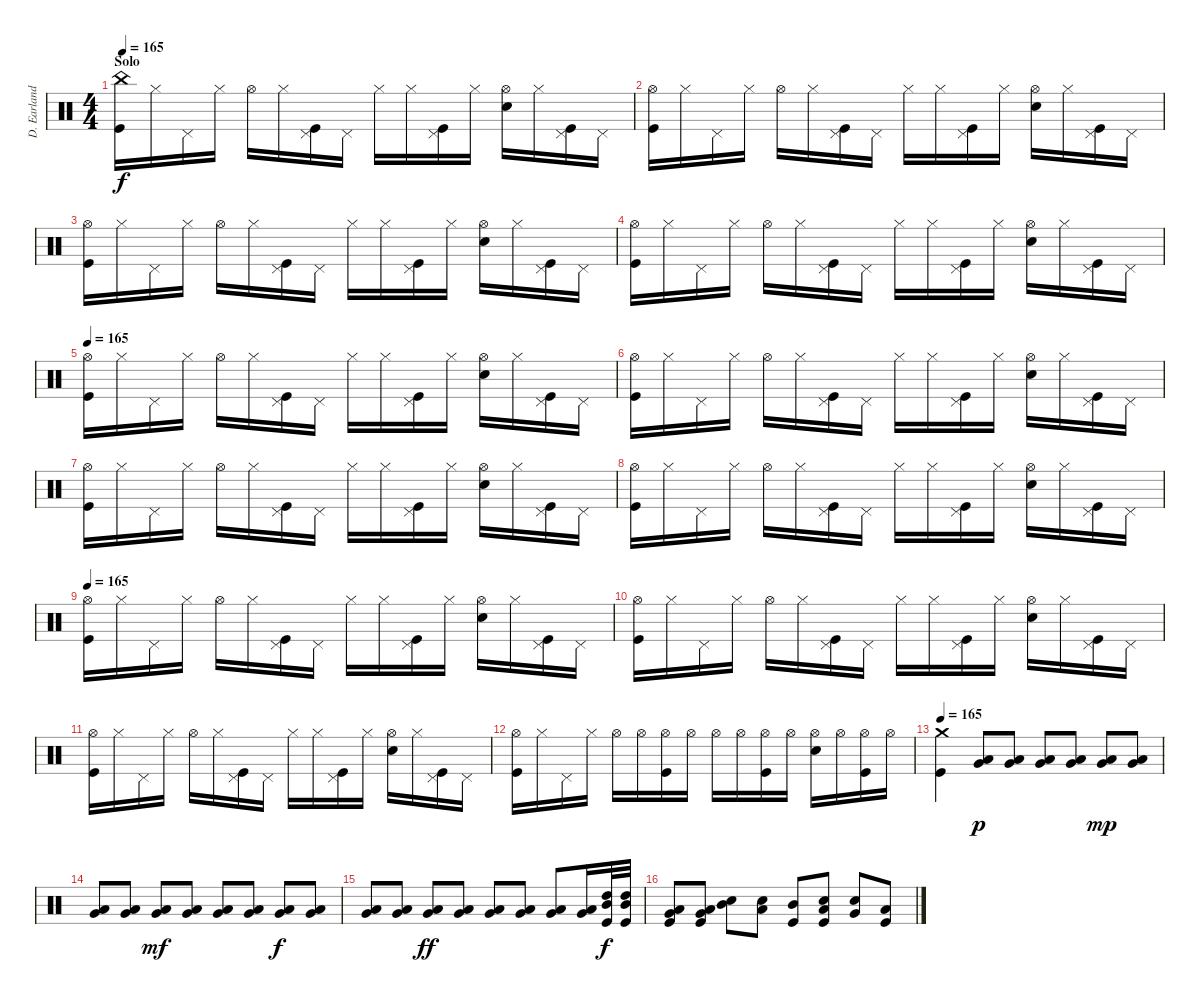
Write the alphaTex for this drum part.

\track ("D. Earlanddson" "D. Earland") {instrument percussion}
\staff {score}
\articulation defaults
\ts (4 4)
\section ("" "Solo")
\tempo 165
\clef neutral
\ks c
("China (hit)" "Kick (hit)").16{dy f} "Hi-Hat (closed)".16 "Pedal Hi-Hat (hit)".16 "Hi-Hat (closed)".16 "Hi-Hat (open)".16 "Hi-Hat (closed)".16 ("Pedal Hi-Hat (hit)" "Kick (hit)").16 "Pedal Hi-Hat (hit)".16 "Hi-Hat (closed)".16 "Hi-Hat (closed)".16 ("Pedal Hi-Hat (hit)" "Kick (hit)").16 "Hi-Hat (closed)".16 ("Hi-Hat (open)" "Electric Snare (hit)").16 "Hi-Hat (closed)".16 ("Pedal Hi-Hat (hit)" "Kick (hit)").16 "Pedal Hi-Hat (hit)".16 |
("Hi-Hat (open)" "Kick (hit)").16 "Hi-Hat (closed)".16 "Pedal Hi-Hat (hit)".16 "Hi-Hat (closed)".16 "Hi-Hat (open)".16 "Hi-Hat (closed)".16 ("Pedal Hi-Hat (hit)" "Kick (hit)").16 "Pedal Hi-Hat (hit)".16 "Hi-Hat (closed)".16 "Hi-Hat (closed)".16 ("Pedal Hi-Hat (hit)" "Kick (hit)").16 "Hi-Hat (closed)".16 ("Hi-Hat (open)" "Electric Snare (hit)").16 "Hi-Hat (closed)".16 ("Pedal Hi-Hat (hit)" "Kick (hit)").16 "Pedal Hi-Hat (hit)".16 |
("Hi-Hat (open)" "Kick (hit)").16 "Hi-Hat (closed)".16 "Pedal Hi-Hat (hit)".16 "Hi-Hat (closed)".16 "Hi-Hat (open)".16 "Hi-Hat (closed)".16 ("Pedal Hi-Hat (hit)" "Kick (hit)").16 "Pedal Hi-Hat (hit)".16 "Hi-Hat (closed)".16 "Hi-Hat (closed)".16 ("Pedal Hi-Hat (hit)" "Kick (hit)").16 "Hi-Hat (closed)".16 ("Hi-Hat (open)" "Electric Snare (hit)").16 "Hi-Hat (closed)".16 ("Pedal Hi-Hat (hit)" "Kick (hit)").16 "Pedal Hi-Hat (hit)".16 |
("Hi-Hat (open)" "Kick (hit)").16 "Hi-Hat (closed)".16 "Pedal Hi-Hat (hit)".16 "Hi-Hat (closed)".16 "Hi-Hat (open)".16 "Hi-Hat (closed)".16 ("Pedal Hi-Hat (hit)" "Kick (hit)").16 "Pedal Hi-Hat (hit)".16 "Hi-Hat (closed)".16 "Hi-Hat (closed)".16 ("Pedal Hi-Hat (hit)" "Kick (hit)").16 "Hi-Hat (closed)".16 ("Hi-Hat (open)" "Electric Snare (hit)").16 "Hi-Hat (closed)".16 ("Pedal Hi-Hat (hit)" "Kick (hit)").16 "Pedal Hi-Hat (hit)".16 |
\tempo 165
("Hi-Hat (open)" "Kick (hit)").16 "Hi-Hat (closed)".16 "Pedal Hi-Hat (hit)".16 "Hi-Hat (closed)".16 "Hi-Hat (open)".16 "Hi-Hat (closed)".16 ("Pedal Hi-Hat (hit)" "Kick (hit)").16 "Pedal Hi-Hat (hit)".16 "Hi-Hat (closed)".16 "Hi-Hat (closed)".16 ("Pedal Hi-Hat (hit)" "Kick (hit)").16 "Hi-Hat (closed)".16 ("Hi-Hat (open)" "Electric Snare (hit)").16 "Hi-Hat (closed)".16 ("Pedal Hi-Hat (hit)" "Kick (hit)").16 "Pedal Hi-Hat (hit)".16 |
("Hi-Hat (open)" "Kick (hit)").16 "Hi-Hat (closed)".16 "Pedal Hi-Hat (hit)".16 "Hi-Hat (closed)".16 "Hi-Hat (open)".16 "Hi-Hat (closed)".16 ("Pedal Hi-Hat (hit)" "Kick (hit)").16 "Pedal Hi-Hat (hit)".16 "Hi-Hat (closed)".16 "Hi-Hat (closed)".16 ("Pedal Hi-Hat (hit)" "Kick (hit)").16 "Hi-Hat (closed)".16 ("Hi-Hat (open)" "Electric Snare (hit)").16 "Hi-Hat (closed)".16 ("Pedal Hi-Hat (hit)" "Kick (hit)").16 "Pedal Hi-Hat (hit)".16 |
("Hi-Hat (open)" "Kick (hit)").16 "Hi-Hat (closed)".16 "Pedal Hi-Hat (hit)".16 "Hi-Hat (closed)".16 "Hi-Hat (open)".16 "Hi-Hat (closed)".16 ("Pedal Hi-Hat (hit)" "Kick (hit)").16 "Pedal Hi-Hat (hit)".16 "Hi-Hat (closed)".16 "Hi-Hat (closed)".16 ("Pedal Hi-Hat (hit)" "Kick (hit)").16 "Hi-Hat (closed)".16 ("Hi-Hat (open)" "Electric Snare (hit)").16 "Hi-Hat (closed)".16 ("Pedal Hi-Hat (hit)" "Kick (hit)").16 "Pedal Hi-Hat (hit)".16 |
("Hi-Hat (open)" "Kick (hit)").16 "Hi-Hat (closed)".16 "Pedal Hi-Hat (hit)".16 "Hi-Hat (closed)".16 "Hi-Hat (open)".16 "Hi-Hat (closed)".16 ("Pedal Hi-Hat (hit)" "Kick (hit)").16 "Pedal Hi-Hat (hit)".16 "Hi-Hat (closed)".16 "Hi-Hat (closed)".16 ("Pedal Hi-Hat (hit)" "Kick (hit)").16 "Hi-Hat (closed)".16 ("Hi-Hat (open)" "Electric Snare (hit)").16 "Hi-Hat (closed)".16 ("Pedal Hi-Hat (hit)" "Kick (hit)").16 "Pedal Hi-Hat (hit)".16 |
\tempo 165
("Hi-Hat (open)" "Kick (hit)").16 "Hi-Hat (closed)".16 "Pedal Hi-Hat (hit)".16 "Hi-Hat (closed)".16 "Hi-Hat (open)".16 "Hi-Hat (closed)".16 ("Pedal Hi-Hat (hit)" "Kick (hit)").16 "Pedal Hi-Hat (hit)".16 "Hi-Hat (closed)".16 "Hi-Hat (closed)".16 ("Pedal Hi-Hat (hit)" "Kick (hit)").16 "Hi-Hat (closed)".16 ("Hi-Hat (open)" "Electric Snare (hit)").16 "Hi-Hat (closed)".16 ("Pedal Hi-Hat (hit)" "Kick (hit)").16 "Pedal Hi-Hat (hit)".16 |
("Hi-Hat (open)" "Kick (hit)").16 "Hi-Hat (closed)".16 "Pedal Hi-Hat (hit)".16 "Hi-Hat (closed)".16 "Hi-Hat (open)".16 "Hi-Hat (closed)".16 ("Pedal Hi-Hat (hit)" "Kick (hit)").16 "Pedal Hi-Hat (hit)".16 "Hi-Hat (closed)".16 "Hi-Hat (closed)".16 ("Pedal Hi-Hat (hit)" "Kick (hit)").16 "Hi-Hat (closed)".16 ("Hi-Hat (open)" "Electric Snare (hit)").16 "Hi-Hat (closed)".16 ("Pedal Hi-Hat (hit)" "Kick (hit)").16 "Pedal Hi-Hat (hit)".16 |
("Hi-Hat (open)" "Kick (hit)").16 "Hi-Hat (closed)".16 "Pedal Hi-Hat (hit)".16 "Hi-Hat (closed)".16 "Hi-Hat (open)".16 "Hi-Hat (closed)".16 ("Pedal Hi-Hat (hit)" "Kick (hit)").16 "Pedal Hi-Hat (hit)".16 "Hi-Hat (closed)".16 "Hi-Hat (closed)".16 ("Pedal Hi-Hat (hit)" "Kick (hit)").16 "Hi-Hat (closed)".16 ("Hi-Hat (open)" "Electric Snare (hit)").16 "Hi-Hat (closed)".16 ("Pedal Hi-Hat (hit)" "Kick (hit)").16 "Pedal Hi-Hat (hit)".16 |
("Hi-Hat (open)" "Kick (hit)").16 "Hi-Hat (closed)".16 "Pedal Hi-Hat (hit)".16 "Hi-Hat (closed)".16 "Hi-Hat (open)".16 "Hi-Hat (open)".16 ("Hi-Hat (open)" "Kick (hit)").16 "Hi-Hat (open)".16 "Hi-Hat (open)".16 "Hi-Hat (open)".16 ("Hi-Hat (open)" "Kick (hit)").16 "Hi-Hat (open)".16 ("Hi-Hat (open)" "Electric Snare (hit)").16 "Hi-Hat (open)".16 ("Hi-Hat (open)" "Kick (hit)").16 "Hi-Hat (open)".16 |
\tempo 165
("Crash medium (hit)" "Kick (hit)").4 ("Low Tom (hit)" "Very Low Tom (hit)").8{dy p} ("Low Tom (hit)" "Very Low Tom (hit)").8 ("Low Tom (hit)" "Very Low Tom (hit)").8 ("Low Tom (hit)" "Very Low Tom (hit)").8 ("Low Tom (hit)" "Very Low Tom (hit)").8{dy mp} ("Low Tom (hit)" "Very Low Tom (hit)").8 |
("Low Tom (hit)" "Very Low Tom (hit)").8 ("Low Tom (hit)" "Very Low Tom (hit)").8 ("Low Tom (hit)" "Very Low Tom (hit)").8{dy mf} ("Low Tom (hit)" "Very Low Tom (hit)").8 ("Low Tom (hit)" "Very Low Tom (hit)").8 ("Low Tom (hit)" "Very Low Tom (hit)").8 ("Low Tom (hit)" "Very Low Tom (hit)").8{dy f} ("Low Tom (hit)" "Very Low Tom (hit)").8 |
("Low Tom (hit)" "Very Low Tom (hit)").8 ("Low Tom (hit)" "Very Low Tom (hit)").8 ("Low Tom (hit)" "Very Low Tom (hit)").8{dy ff} ("Low Tom (hit)" "Very Low Tom (hit)").8 ("Low Tom (hit)" "Very Low Tom (hit)").8 ("Low Tom (hit)" "Very Low Tom (hit)").8 ("Low Tom (hit)" "Very Low Tom (hit)").8 ("Low Tom (hit)" "Very Low Tom (hit)").16 ("High Tom (hit)" "Mid Tom (hit)" "Kick (hit)").32{dy f} ("High Tom (hit)" "Mid Tom (hit)" "Kick (hit)").32 |
("Low Tom (hit)" "Very Low Tom (hit)" "Kick (hit)").8 ("Low Tom (hit)" "Very Low Tom (hit)" "Kick (hit)").8 ("Mid Tom (hit)" "Electric Snare (hit)").8 ("Low Tom (hit)" "Electric Snare (hit)").8 ("Mid Tom (hit)" "Kick (hit)").8 ("Low Tom (hit)" "Electric Snare (hit)" "Kick (hit)").8 ("Very Low Tom (hit)" "Electric Snare (hit)").8 ("Low Floor Tom (hit)" "Kick (hit)").8
